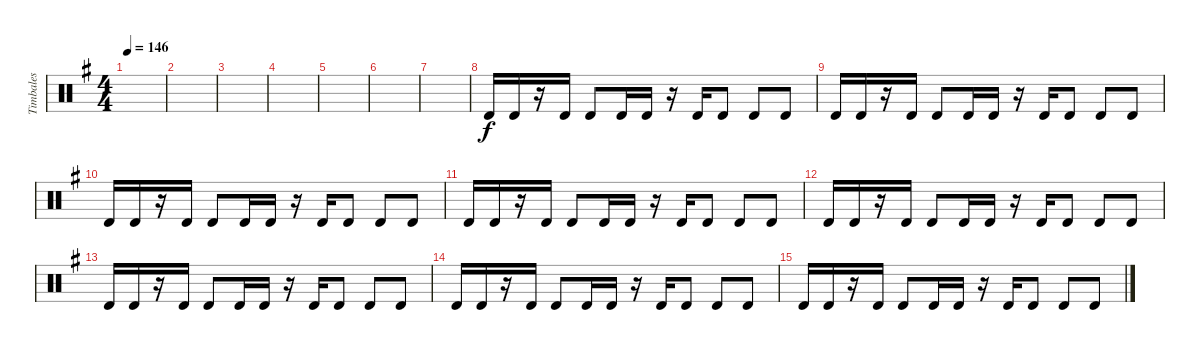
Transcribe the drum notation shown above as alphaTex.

\track ("Timbales" "Timbales") {instrument percussion}
\staff {score}
\articulation defaults
\ts (4 4)
\tempo 146
\clef neutral
\ks g
|
|
|
|
|
|
|
"Timbale high (hit)".16 "Timbale high (hit)".16 r.16 "Timbale high (hit)".16 "Timbale high (hit)".8 "Timbale high (hit)".16 "Timbale high (hit)".16 r.16 "Timbale high (hit)".16 "Timbale high (hit)".8 "Timbale high (hit)".8 "Timbale high (hit)".8 |
"Timbale high (hit)".16 "Timbale high (hit)".16 r.16 "Timbale high (hit)".16 "Timbale high (hit)".8 "Timbale high (hit)".16 "Timbale high (hit)".16 r.16 "Timbale high (hit)".16 "Timbale high (hit)".8 "Timbale high (hit)".8 "Timbale high (hit)".8 |
"Timbale high (hit)".16 "Timbale high (hit)".16 r.16 "Timbale high (hit)".16 "Timbale high (hit)".8 "Timbale high (hit)".16 "Timbale high (hit)".16 r.16 "Timbale high (hit)".16 "Timbale high (hit)".8 "Timbale high (hit)".8 "Timbale high (hit)".8 |
"Timbale high (hit)".16 "Timbale high (hit)".16 r.16 "Timbale high (hit)".16 "Timbale high (hit)".8 "Timbale high (hit)".16 "Timbale high (hit)".16 r.16 "Timbale high (hit)".16 "Timbale high (hit)".8 "Timbale high (hit)".8 "Timbale high (hit)".8 |
"Timbale high (hit)".16 "Timbale high (hit)".16 r.16 "Timbale high (hit)".16 "Timbale high (hit)".8 "Timbale high (hit)".16 "Timbale high (hit)".16 r.16 "Timbale high (hit)".16 "Timbale high (hit)".8 "Timbale high (hit)".8 "Timbale high (hit)".8 |
"Timbale high (hit)".16 "Timbale high (hit)".16 r.16 "Timbale high (hit)".16 "Timbale high (hit)".8 "Timbale high (hit)".16 "Timbale high (hit)".16 r.16 "Timbale high (hit)".16 "Timbale high (hit)".8 "Timbale high (hit)".8 "Timbale high (hit)".8 |
"Timbale high (hit)".16 "Timbale high (hit)".16 r.16 "Timbale high (hit)".16 "Timbale high (hit)".8 "Timbale high (hit)".16 "Timbale high (hit)".16 r.16 "Timbale high (hit)".16 "Timbale high (hit)".8 "Timbale high (hit)".8 "Timbale high (hit)".8 |
"Timbale high (hit)".16 "Timbale high (hit)".16 r.16 "Timbale high (hit)".16 "Timbale high (hit)".8 "Timbale high (hit)".16 "Timbale high (hit)".16 r.16 "Timbale high (hit)".16 "Timbale high (hit)".8 "Timbale high (hit)".8 "Timbale high (hit)".8
